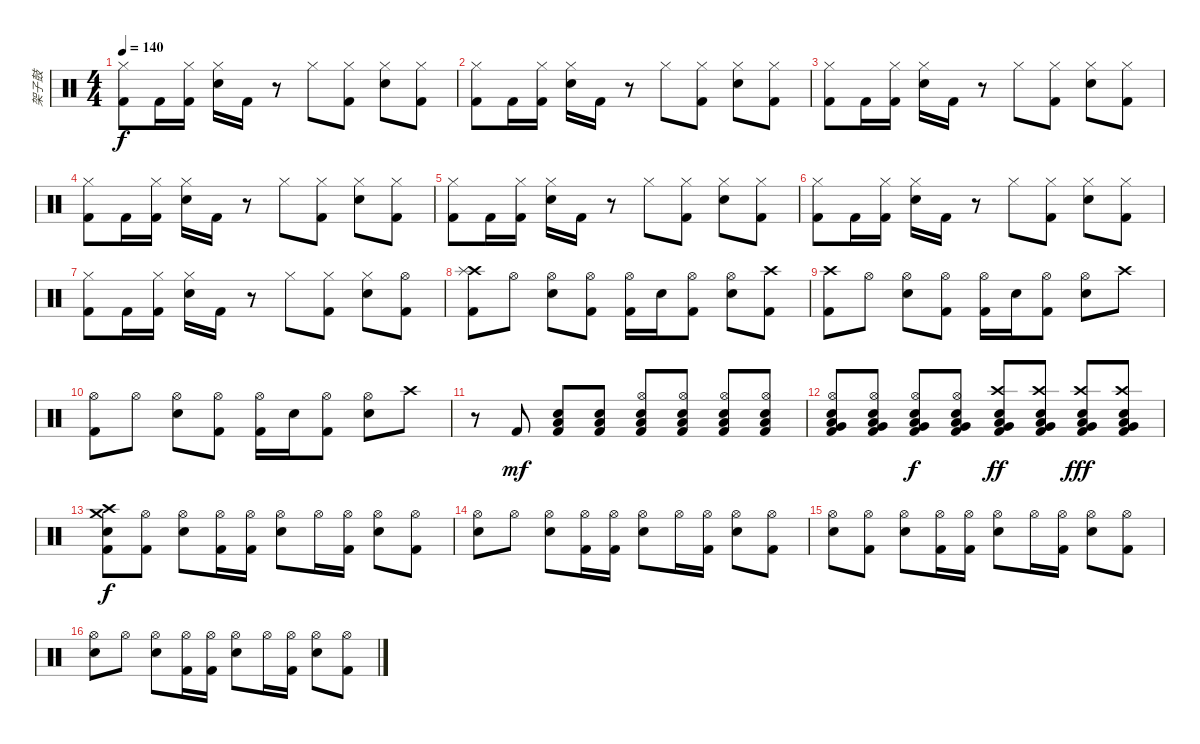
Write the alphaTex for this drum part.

\track ("架子鼓" "架子鼓") {instrument percussion}
\staff {score}
\articulation defaults
\ts (4 4)
\tempo 140
\clef neutral
\ks c
("Hi-Hat (closed)" "Kick (hit) 2").8{dy f} "Kick (hit) 2".16 ("Hi-Hat (closed)" "Kick (hit) 2").16 ("Hi-Hat (closed)" "Snare (hit) 2").16 "Kick (hit) 2".16 r.8 "Hi-Hat (closed)".8 ("Hi-Hat (closed)" "Kick (hit) 2").8 ("Hi-Hat (closed)" "Snare (hit) 2").8 ("Hi-Hat (closed)" "Kick (hit) 2").8 |
("Hi-Hat (closed)" "Kick (hit) 2").8 "Kick (hit) 2".16 ("Hi-Hat (closed)" "Kick (hit) 2").16 ("Hi-Hat (closed)" "Snare (hit) 2").16 "Kick (hit) 2".16 r.8 "Hi-Hat (closed)".8 ("Hi-Hat (closed)" "Kick (hit) 2").8 ("Hi-Hat (closed)" "Snare (hit) 2").8 ("Hi-Hat (closed)" "Kick (hit) 2").8 |
("Hi-Hat (closed)" "Kick (hit) 2").8 "Kick (hit) 2".16 ("Hi-Hat (closed)" "Kick (hit) 2").16 ("Hi-Hat (closed)" "Snare (hit) 2").16 "Kick (hit) 2".16 r.8 "Hi-Hat (closed)".8 ("Hi-Hat (closed)" "Kick (hit) 2").8 ("Hi-Hat (closed)" "Snare (hit) 2").8 ("Hi-Hat (closed)" "Kick (hit) 2").8 |
("Hi-Hat (closed)" "Kick (hit) 2").8 "Kick (hit) 2".16 ("Hi-Hat (closed)" "Kick (hit) 2").16 ("Hi-Hat (closed)" "Snare (hit) 2").16 "Kick (hit) 2".16 r.8 "Hi-Hat (closed)".8 ("Hi-Hat (closed)" "Kick (hit) 2").8 ("Hi-Hat (closed)" "Snare (hit) 2").8 ("Hi-Hat (closed)" "Kick (hit) 2").8 |
("Hi-Hat (closed)" "Kick (hit) 2").8 "Kick (hit) 2".16 ("Hi-Hat (closed)" "Kick (hit) 2").16 ("Hi-Hat (closed)" "Snare (hit) 2").16 "Kick (hit) 2".16 r.8 "Hi-Hat (closed)".8 ("Hi-Hat (closed)" "Kick (hit) 2").8 ("Hi-Hat (closed)" "Snare (hit) 2").8 ("Hi-Hat (closed)" "Kick (hit) 2").8 |
("Hi-Hat (closed)" "Kick (hit) 2").8 "Kick (hit) 2".16 ("Hi-Hat (closed)" "Kick (hit) 2").16 ("Hi-Hat (closed)" "Snare (hit) 2").16 "Kick (hit) 2".16 r.8 "Hi-Hat (closed)".8 ("Hi-Hat (closed)" "Kick (hit) 2").8 ("Hi-Hat (closed)" "Snare (hit) 2").8 ("Hi-Hat (closed)" "Kick (hit) 2").8 |
("Hi-Hat (closed)" "Kick (hit) 2").8 "Kick (hit) 2".16 ("Hi-Hat (closed)" "Kick (hit) 2").16 ("Hi-Hat (closed)" "Snare (hit) 2").16 "Kick (hit) 2".16 r.8 "Hi-Hat (closed)".8 ("Hi-Hat (closed)" "Kick (hit) 2").8 ("Hi-Hat (closed)" "Snare (hit) 2").8 ("Hi-Hat (open)" "Kick (hit) 2").8 |
("Crash high (hit)" "Splash (hit)" "Kick (hit) 2").8 "Hi-Hat (open)".8 ("Hi-Hat (open)" "Snare (hit) 2").8 ("Hi-Hat (open)" "Kick (hit) 2").8 ("Hi-Hat (open)" "Kick (hit) 2").16 "Snare (hit) 2".16 ("Hi-Hat (open)" "Kick (hit) 2").8 ("Hi-Hat (open)" "Snare (hit) 2").8 ("Crash high (hit)" "Kick (hit) 2").8 |
("Crash high (hit)" "Kick (hit) 2").8 "Hi-Hat (open)".8 ("Hi-Hat (open)" "Snare (hit) 2").8 ("Hi-Hat (open)" "Kick (hit) 2").8 ("Hi-Hat (open)" "Kick (hit) 2").16 "Snare (hit) 2".16 ("Hi-Hat (open)" "Kick (hit) 2").8 ("Hi-Hat (open)" "Snare (hit) 2").8 "Crash high (hit)".8 |
("Hi-Hat (open)" "Kick (hit) 2").8 "Hi-Hat (open)".8 ("Hi-Hat (open)" "Snare (hit) 2").8 ("Hi-Hat (open)" "Kick (hit) 2").8 ("Hi-Hat (open)" "Kick (hit) 2").16 "Snare (hit) 2".16 ("Hi-Hat (open)" "Kick (hit) 2").8 ("Hi-Hat (open)" "Snare (hit) 2").8 "Crash high (hit)".8 |
r.8 "Kick (hit) 2".8{dy mf} ("Snare (hit) 2" "Low Tom (hit)" "Kick (hit) 2").8 ("Snare (hit) 2" "Low Tom (hit)" "Kick (hit) 2").8 ("Hi-Hat (open)" "Snare (hit) 2" "Low Tom (hit)" "Kick (hit) 2").8 ("Hi-Hat (open)" "Snare (hit) 2" "Low Tom (hit)" "Kick (hit) 2").8 ("Hi-Hat (open)" "Snare (hit) 2" "Low Tom (hit)" "Kick (hit) 2").8 ("Hi-Hat (open)" "Snare (hit) 2" "Low Tom (hit)" "Kick (hit) 2").8 |
("Hi-Hat (open)" "Snare (hit) 2" "Very Low Tom (hit)" "Low Tom (hit)" "Kick (hit) 2").8 ("Hi-Hat (open)" "Snare (hit) 2" "Very Low Tom (hit)" "Low Tom (hit)" "Kick (hit) 2").8 ("Hi-Hat (open)" "Snare (hit) 2" "Very Low Tom (hit)" "Low Tom (hit)" "Kick (hit) 2").8{dy f} ("Hi-Hat (open)" "Snare (hit) 2" "Very Low Tom (hit)" "Low Tom (hit)" "Kick (hit) 2").8 ("Crash high (hit)" "Snare (hit) 2" "Very Low Tom (hit)" "Low Tom (hit)" "Kick (hit) 2").8{dy ff} ("Crash high (hit)" "Snare (hit) 2" "Very Low Tom (hit)" "Low Tom (hit)" "Kick (hit) 2").8 ("Crash high (hit)" "Snare (hit) 2" "Very Low Tom (hit)" "Low Tom (hit)" "Kick (hit) 2").8{dy fff} ("Crash high (hit)" "Snare (hit) 2" "Very Low Tom (hit)" "Low Tom (hit)" "Kick (hit) 2").8 |
("Crash high (hit)" "Crash medium (hit)" "Snare (hit) 2" "Kick (hit) 2").8{dy f} ("Hi-Hat (open)" "Kick (hit) 2").8 ("Hi-Hat (open)" "Snare (hit) 2").8 ("Hi-Hat (open)" "Kick (hit) 2").16 ("Hi-Hat (open)" "Kick (hit) 2").16 ("Hi-Hat (open)" "Snare (hit) 2").8 "Hi-Hat (open)".16 ("Hi-Hat (open)" "Kick (hit) 2").16 ("Hi-Hat (open)" "Snare (hit) 2").8 ("Hi-Hat (open)" "Kick (hit) 2").8 |
("Hi-Hat (open)" "Snare (hit) 2").8 "Hi-Hat (open)".8 ("Hi-Hat (open)" "Snare (hit) 2").8 ("Hi-Hat (open)" "Kick (hit) 2").16 ("Hi-Hat (open)" "Kick (hit) 2").16 ("Hi-Hat (open)" "Snare (hit) 2").8 "Hi-Hat (open)".16 ("Hi-Hat (open)" "Kick (hit) 2").16 ("Hi-Hat (open)" "Snare (hit) 2").8 ("Hi-Hat (open)" "Kick (hit) 2").8 |
("Hi-Hat (open)" "Snare (hit) 2").8 ("Hi-Hat (open)" "Kick (hit) 2").8 ("Hi-Hat (open)" "Snare (hit) 2").8 ("Hi-Hat (open)" "Kick (hit) 2").16 ("Hi-Hat (open)" "Kick (hit) 2").16 ("Hi-Hat (open)" "Snare (hit) 2").8 "Hi-Hat (open)".16 ("Hi-Hat (open)" "Kick (hit) 2").16 ("Hi-Hat (open)" "Snare (hit) 2").8 ("Hi-Hat (open)" "Kick (hit) 2").8 |
("Hi-Hat (open)" "Snare (hit) 2").8 "Hi-Hat (open)".8 ("Hi-Hat (open)" "Snare (hit) 2").8 ("Hi-Hat (open)" "Kick (hit) 2").16 ("Hi-Hat (open)" "Kick (hit) 2").16 ("Hi-Hat (open)" "Snare (hit) 2").8 "Hi-Hat (open)".16 ("Hi-Hat (open)" "Kick (hit) 2").16 ("Hi-Hat (open)" "Snare (hit) 2").8 ("Hi-Hat (open)" "Kick (hit) 2").8
